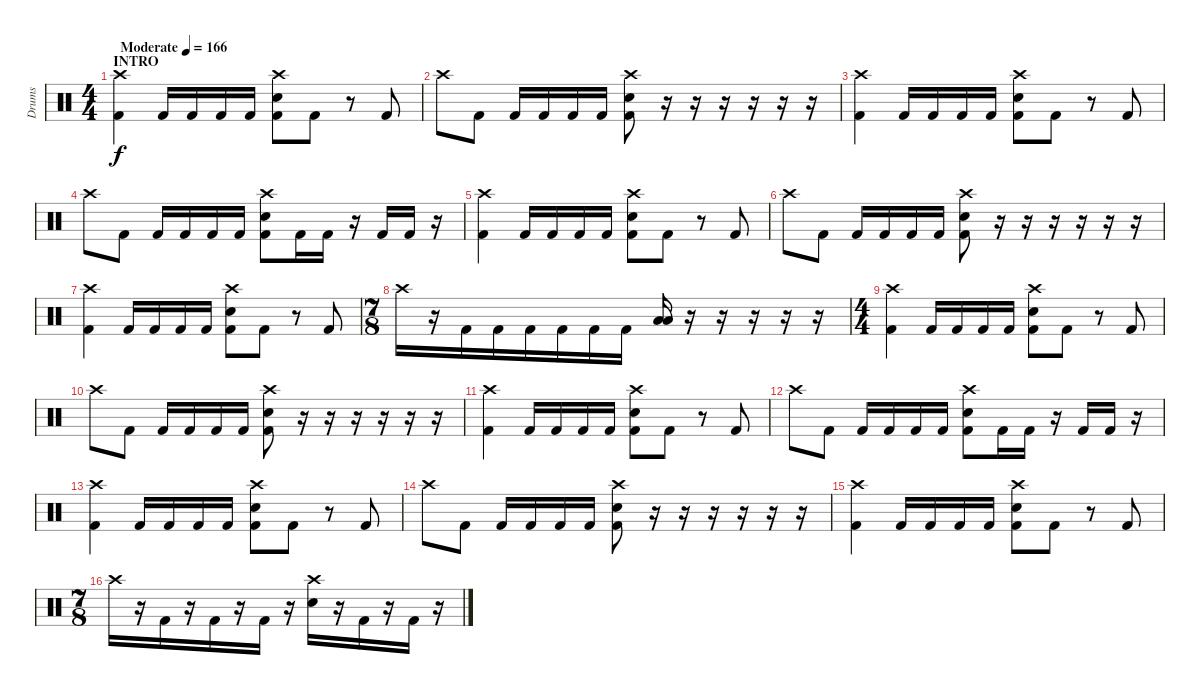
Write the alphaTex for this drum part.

\track ("Drums" "Drums") {instrument percussion}
\staff {score}
\articulation defaults
\ts (4 4)
\section ("" "INTRO")
\tempo (166 "Moderate")
\clef neutral
\ks c
("Crash high (hit)" "Kick (hit) 2").4{dy f} "Kick (hit) 2".16 "Kick (hit) 2".16 "Kick (hit) 2".16 "Kick (hit) 2".16 ("Crash high (hit)" "Snare (hit) 2" "Kick (hit) 2").8 "Kick (hit) 2".8 r.8 "Kick (hit) 2".8 |
"Crash high (hit)".8 "Kick (hit) 2".8 "Kick (hit) 2".16 "Kick (hit) 2".16 "Kick (hit) 2".16 "Kick (hit) 2".16 ("Crash high (hit)" "Snare (hit) 2" "Kick (hit) 2").8 r.16 r.16 r.16 r.16 r.16 r.16 |
("Crash high (hit)" "Kick (hit) 2").4 "Kick (hit) 2".16 "Kick (hit) 2".16 "Kick (hit) 2".16 "Kick (hit) 2".16 ("Crash high (hit)" "Snare (hit) 2" "Kick (hit) 2").8 "Kick (hit) 2".8 r.8 "Kick (hit) 2".8 |
"Crash high (hit)".8 "Kick (hit) 2".8 "Kick (hit) 2".16 "Kick (hit) 2".16 "Kick (hit) 2".16 "Kick (hit) 2".16 ("Crash high (hit)" "Snare (hit) 2" "Kick (hit) 2").8 "Kick (hit) 2".16 "Kick (hit) 2".16 r.16 "Kick (hit) 2".16 "Kick (hit) 2".16 r.16 |
("Crash high (hit)" "Kick (hit) 2").4 "Kick (hit) 2".16 "Kick (hit) 2".16 "Kick (hit) 2".16 "Kick (hit) 2".16 ("Crash high (hit)" "Snare (hit) 2" "Kick (hit) 2").8 "Kick (hit) 2".8 r.8 "Kick (hit) 2".8 |
"Crash high (hit)".8 "Kick (hit) 2".8 "Kick (hit) 2".16 "Kick (hit) 2".16 "Kick (hit) 2".16 "Kick (hit) 2".16 ("Crash high (hit)" "Snare (hit) 2" "Kick (hit) 2").8 r.16 r.16 r.16 r.16 r.16 r.16 |
("Crash high (hit)" "Kick (hit) 2").4 "Kick (hit) 2".16 "Kick (hit) 2".16 "Kick (hit) 2".16 "Kick (hit) 2".16 ("Crash high (hit)" "Snare (hit) 2" "Kick (hit) 2").8 "Kick (hit) 2".8 r.8 "Kick (hit) 2".8 |
\ts (7 8)
"Crash high (hit)".16 r.16 "Kick (hit) 2".16 "Kick (hit) 2".16 "Kick (hit) 2".16 "Kick (hit) 2".16 "Kick (hit) 2".16 "Kick (hit) 2".16 ("Low Floor Tom (hit)" "Low Floor Tom (hit)").16 r.16 r.16 r.16 r.16 r.16 |
\ts (4 4)
("Crash high (hit)" "Kick (hit) 2").4 "Kick (hit) 2".16 "Kick (hit) 2".16 "Kick (hit) 2".16 "Kick (hit) 2".16 ("Crash high (hit)" "Snare (hit) 2" "Kick (hit) 2").8 "Kick (hit) 2".8 r.8 "Kick (hit) 2".8 |
"Crash high (hit)".8 "Kick (hit) 2".8 "Kick (hit) 2".16 "Kick (hit) 2".16 "Kick (hit) 2".16 "Kick (hit) 2".16 ("Crash high (hit)" "Snare (hit) 2" "Kick (hit) 2").8 r.16 r.16 r.16 r.16 r.16 r.16 |
("Crash high (hit)" "Kick (hit) 2").4 "Kick (hit) 2".16 "Kick (hit) 2".16 "Kick (hit) 2".16 "Kick (hit) 2".16 ("Crash high (hit)" "Snare (hit) 2" "Kick (hit) 2").8 "Kick (hit) 2".8 r.8 "Kick (hit) 2".8 |
"Crash high (hit)".8 "Kick (hit) 2".8 "Kick (hit) 2".16 "Kick (hit) 2".16 "Kick (hit) 2".16 "Kick (hit) 2".16 ("Crash high (hit)" "Snare (hit) 2" "Kick (hit) 2").8 "Kick (hit) 2".16 "Kick (hit) 2".16 r.16 "Kick (hit) 2".16 "Kick (hit) 2".16 r.16 |
("Crash high (hit)" "Kick (hit) 2").4 "Kick (hit) 2".16 "Kick (hit) 2".16 "Kick (hit) 2".16 "Kick (hit) 2".16 ("Crash high (hit)" "Snare (hit) 2" "Kick (hit) 2").8 "Kick (hit) 2".8 r.8 "Kick (hit) 2".8 |
"Crash high (hit)".8 "Kick (hit) 2".8 "Kick (hit) 2".16 "Kick (hit) 2".16 "Kick (hit) 2".16 "Kick (hit) 2".16 ("Crash high (hit)" "Snare (hit) 2" "Kick (hit) 2").8 r.16 r.16 r.16 r.16 r.16 r.16 |
("Crash high (hit)" "Kick (hit) 2").4 "Kick (hit) 2".16 "Kick (hit) 2".16 "Kick (hit) 2".16 "Kick (hit) 2".16 ("Crash high (hit)" "Snare (hit) 2" "Kick (hit) 2").8 "Kick (hit) 2".8 r.8 "Kick (hit) 2".8 |
\ts (7 8)
"Crash high (hit)".16 r.16 "Kick (hit) 2".16 r.16 "Kick (hit) 2".16 r.16 "Kick (hit) 2".16 r.16 ("Crash high (hit)" "Snare (hit) 2").16 r.16 "Kick (hit) 2".16 r.16 "Kick (hit) 2".16 r.16
